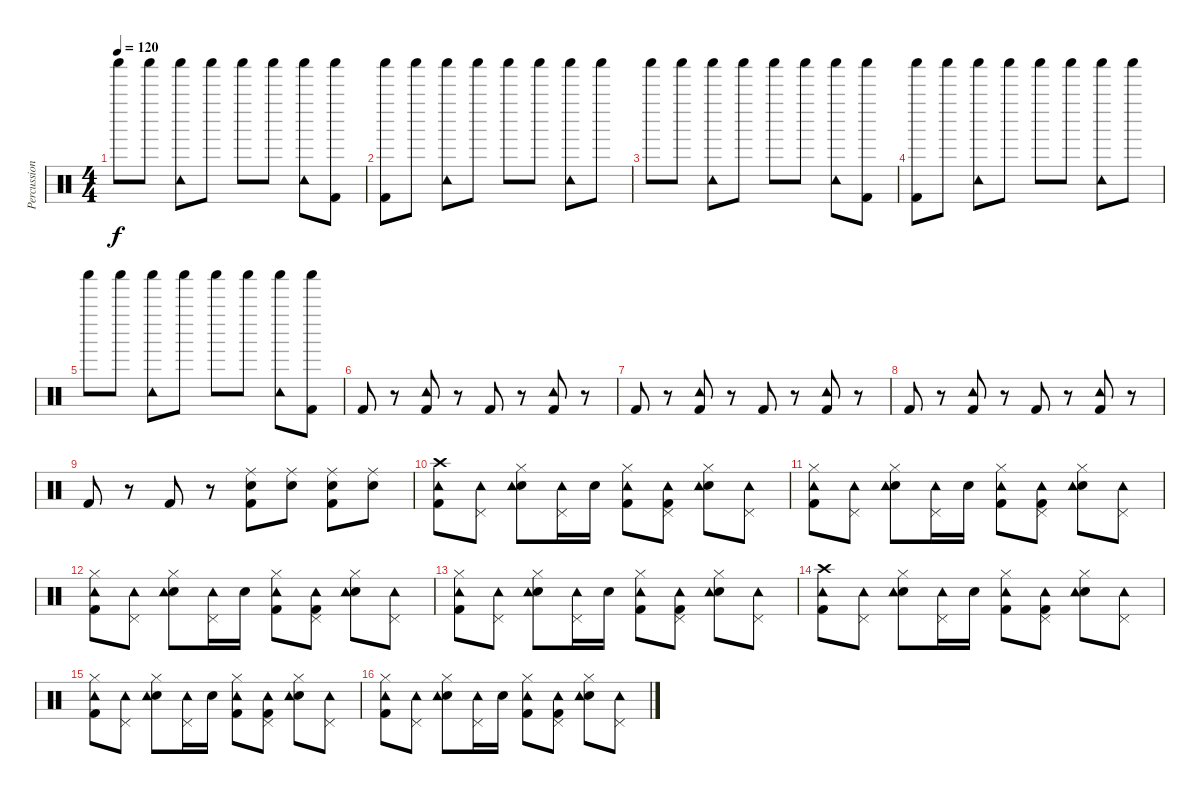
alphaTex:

\track ("Percussion" "Percussion") {instrument percussion}
\staff {score}
\articulation defaults
\ts (4 4)
\tempo 120
\clef neutral
\ks c "Shaker (hit)".8{dy f} "Shaker (hit)".8
("Shaker (hit)" "Tambourine (hit)").8 "Shaker (hit)".8 "Shaker (hit)".8 "Shaker (hit)".8 ("Shaker (hit)" "Tambourine (hit)").8 ("Kick (hit) 2" "Shaker (hit)").8 |
("Kick (hit) 2" "Shaker (hit)").8 "Shaker (hit)".8 ("Shaker (hit)" "Tambourine (hit)").8 "Shaker (hit)".8 "Shaker (hit)".8 "Shaker (hit)".8 ("Shaker (hit)" "Tambourine (hit)").8 "Shaker (hit)".8 |
"Shaker (hit)".8 "Shaker (hit)".8 ("Shaker (hit)" "Tambourine (hit)").8 "Shaker (hit)".8 "Shaker (hit)".8 "Shaker (hit)".8 ("Shaker (hit)" "Tambourine (hit)").8 ("Kick (hit) 2" "Shaker (hit)").8 |
("Kick (hit) 2" "Shaker (hit)").8 "Shaker (hit)".8 ("Shaker (hit)" "Tambourine (hit)").8 "Shaker (hit)".8 "Shaker (hit)".8 "Shaker (hit)".8 ("Shaker (hit)" "Tambourine (hit)").8 "Shaker (hit)".8 |
"Shaker (hit)".8 "Shaker (hit)".8 ("Shaker (hit)" "Tambourine (hit)").8 "Shaker (hit)".8 "Shaker (hit)".8 "Shaker (hit)".8 ("Shaker (hit)" "Tambourine (hit)").8 ("Kick (hit) 2" "Shaker (hit)").8 |
"Kick (hit) 2".8 r.8 ("Kick (hit) 2" "Tambourine (hit)").8 r.8 "Kick (hit) 2".8 r.8 ("Kick (hit) 2" "Tambourine (hit)").8 r.8 |
"Kick (hit) 2".8 r.8 ("Kick (hit) 2" "Tambourine (hit)").8 r.8 "Kick (hit) 2".8 r.8 ("Kick (hit) 2" "Tambourine (hit)").8 r.8 |
"Kick (hit) 2".8 r.8 ("Kick (hit) 2" "Tambourine (hit)").8 r.8 "Kick (hit) 2".8 r.8 ("Kick (hit) 2" "Tambourine (hit)").8 r.8 |
"Kick (hit) 2".8 r.8 "Kick (hit) 2".8 r.8 ("Kick (hit) 2" "Electric Snare (hit)" "Ride (middle)").8 ("Electric Snare (hit)" "Ride (middle)").8 ("Kick (hit) 2" "Electric Snare (hit)" "Ride (middle)").8 ("Electric Snare (hit)" "Ride (middle)").8 |
("Kick (hit) 2" "Tambourine (hit)" "Crash high (hit)").8 ("Tambourine (hit)" "Pedal Hi-Hat (hit)").8 ("Electric Snare (hit)" "Tambourine (hit)" "Hi-Hat (closed)").8 ("Tambourine (hit)" "Pedal Hi-Hat (hit)").16 "Electric Snare (hit)".16 ("Kick (hit) 2" "Tambourine (hit)" "Hi-Hat (closed)").8 ("Kick (hit) 2" "Tambourine (hit)" "Pedal Hi-Hat (hit)").8 ("Electric Snare (hit)" "Tambourine (hit)" "Hi-Hat (closed)").8 ("Tambourine (hit)" "Pedal Hi-Hat (hit)").8 |
("Kick (hit) 2" "Tambourine (hit)" "Hi-Hat (closed)").8 ("Tambourine (hit)" "Pedal Hi-Hat (hit)").8 ("Electric Snare (hit)" "Tambourine (hit)" "Hi-Hat (closed)").8 ("Tambourine (hit)" "Pedal Hi-Hat (hit)").16 "Electric Snare (hit)".16 ("Kick (hit) 2" "Tambourine (hit)" "Hi-Hat (closed)").8 ("Kick (hit) 2" "Tambourine (hit)" "Pedal Hi-Hat (hit)").8 ("Electric Snare (hit)" "Tambourine (hit)" "Hi-Hat (closed)").8 ("Tambourine (hit)" "Pedal Hi-Hat (hit)").8 |
("Kick (hit) 2" "Tambourine (hit)" "Hi-Hat (closed)").8 ("Tambourine (hit)" "Pedal Hi-Hat (hit)").8 ("Electric Snare (hit)" "Tambourine (hit)" "Hi-Hat (closed)").8 ("Tambourine (hit)" "Pedal Hi-Hat (hit)").16 "Electric Snare (hit)".16 ("Kick (hit) 2" "Tambourine (hit)" "Hi-Hat (closed)").8 ("Kick (hit) 2" "Tambourine (hit)" "Pedal Hi-Hat (hit)").8 ("Electric Snare (hit)" "Tambourine (hit)" "Hi-Hat (closed)").8 ("Tambourine (hit)" "Pedal Hi-Hat (hit)").8 |
("Kick (hit) 2" "Tambourine (hit)" "Hi-Hat (closed)").8 ("Tambourine (hit)" "Pedal Hi-Hat (hit)").8 ("Electric Snare (hit)" "Tambourine (hit)" "Hi-Hat (closed)").8 ("Tambourine (hit)" "Pedal Hi-Hat (hit)").16 "Electric Snare (hit)".16 ("Kick (hit) 2" "Tambourine (hit)" "Hi-Hat (closed)").8 ("Kick (hit) 2" "Tambourine (hit)" "Pedal Hi-Hat (hit)").8 ("Electric Snare (hit)" "Tambourine (hit)" "Hi-Hat (closed)").8 ("Tambourine (hit)" "Pedal Hi-Hat (hit)").8 |
("Kick (hit) 2" "Tambourine (hit)" "Crash high (hit)").8 ("Tambourine (hit)" "Pedal Hi-Hat (hit)").8 ("Electric Snare (hit)" "Tambourine (hit)" "Hi-Hat (closed)").8 ("Tambourine (hit)" "Pedal Hi-Hat (hit)").16 "Electric Snare (hit)".16 ("Kick (hit) 2" "Tambourine (hit)" "Hi-Hat (closed)").8 ("Kick (hit) 2" "Tambourine (hit)" "Pedal Hi-Hat (hit)").8 ("Electric Snare (hit)" "Tambourine (hit)" "Hi-Hat (closed)").8 ("Tambourine (hit)" "Pedal Hi-Hat (hit)").8 |
("Kick (hit) 2" "Tambourine (hit)" "Hi-Hat (closed)").8 ("Tambourine (hit)" "Pedal Hi-Hat (hit)").8 ("Electric Snare (hit)" "Tambourine (hit)" "Hi-Hat (closed)").8 ("Tambourine (hit)" "Pedal Hi-Hat (hit)").16 "Electric Snare (hit)".16 ("Kick (hit) 2" "Tambourine (hit)" "Hi-Hat (closed)").8 ("Kick (hit) 2" "Tambourine (hit)" "Pedal Hi-Hat (hit)").8 ("Electric Snare (hit)" "Tambourine (hit)" "Hi-Hat (closed)").8 ("Tambourine (hit)" "Pedal Hi-Hat (hit)").8 |
("Kick (hit) 2" "Tambourine (hit)" "Hi-Hat (closed)").8 ("Tambourine (hit)" "Pedal Hi-Hat (hit)").8 ("Electric Snare (hit)" "Tambourine (hit)" "Hi-Hat (closed)").8 ("Tambourine (hit)" "Pedal Hi-Hat (hit)").16 "Electric Snare (hit)".16 ("Kick (hit) 2" "Tambourine (hit)" "Hi-Hat (closed)").8 ("Kick (hit) 2" "Tambourine (hit)" "Pedal Hi-Hat (hit)").8 ("Electric Snare (hit)" "Tambourine (hit)" "Hi-Hat (closed)").8 ("Tambourine (hit)" "Pedal Hi-Hat (hit)").8
